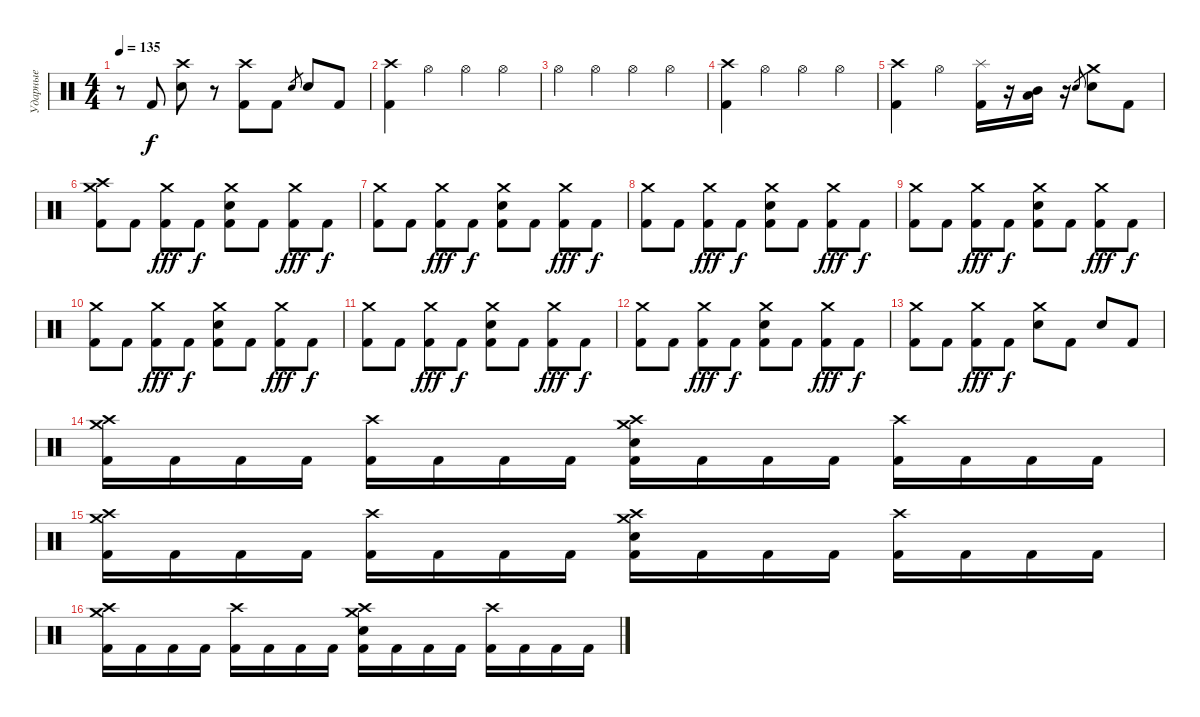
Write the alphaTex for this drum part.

\track ("Ударные" "Ударные") {instrument percussion}
\staff {score}
\articulation defaults
\ts (4 4)
\tempo 135
\clef neutral
\ks c
r.8{dy f} "Kick (hit) 2".8 ("Crash high (hit)" "Electric Snare (hit)").8 r.8 ("Crash high (hit)" "Kick (hit) 2").8 "Kick (hit) 2".8 "Electric Snare (hit)".8{gr} "Electric Snare (hit)".8 "Kick (hit) 2".8 |
("Crash high (hit)" "Kick (hit) 2").4 "Hi-Hat (open)".4 "Hi-Hat (open)".4 "Hi-Hat (open)".4 |
"Hi-Hat (open)".4 "Hi-Hat (open)".4 "Hi-Hat (open)".4 "Hi-Hat (open)".4 |
("Crash high (hit)" "Kick (hit) 2").4 "Hi-Hat (open)".4 "Hi-Hat (open)".4 "Hi-Hat (open)".4 |
("Crash high (hit)" "Kick (hit) 2").4 "Hi-Hat (open)".4 ("Splash (hit)" "Kick (hit) 2").16 r.16 ("Mid Tom (hit)" "Low Tom (hit)").16 r.16 "Electric Snare (hit)".8{gr} ("Crash medium (hit)" "Electric Snare (hit)").8 "Kick (hit) 2".8 |
("Crash medium (hit)" "Crash high (hit)" "Kick (hit) 2").8 "Kick (hit) 2".8 ("Crash medium (hit)" "Kick (hit) 2").8{dy fff} "Kick (hit) 2".8{dy f} ("Crash medium (hit)" "Electric Snare (hit)" "Kick (hit) 2").8 "Kick (hit) 2".8 ("Crash medium (hit)" "Kick (hit) 2").8{dy fff} "Kick (hit) 2".8{dy f} |
("Crash medium (hit)" "Kick (hit) 2").8 "Kick (hit) 2".8 ("Crash medium (hit)" "Kick (hit) 2").8{dy fff} "Kick (hit) 2".8{dy f} ("Crash medium (hit)" "Electric Snare (hit)" "Kick (hit) 2").8 "Kick (hit) 2".8 ("Crash medium (hit)" "Kick (hit) 2").8{dy fff} "Kick (hit) 2".8{dy f} |
("Crash medium (hit)" "Kick (hit) 2").8 "Kick (hit) 2".8 ("Crash medium (hit)" "Kick (hit) 2").8{dy fff} "Kick (hit) 2".8{dy f} ("Crash medium (hit)" "Electric Snare (hit)" "Kick (hit) 2").8 "Kick (hit) 2".8 ("Crash medium (hit)" "Kick (hit) 2").8{dy fff} "Kick (hit) 2".8{dy f} |
("Crash medium (hit)" "Kick (hit) 2").8 "Kick (hit) 2".8 ("Crash medium (hit)" "Kick (hit) 2").8{dy fff} "Kick (hit) 2".8{dy f} ("Crash medium (hit)" "Electric Snare (hit)" "Kick (hit) 2").8 "Kick (hit) 2".8 ("Crash medium (hit)" "Kick (hit) 2").8{dy fff} "Kick (hit) 2".8{dy f} |
("Crash medium (hit)" "Kick (hit) 2").8 "Kick (hit) 2".8 ("Crash medium (hit)" "Kick (hit) 2").8{dy fff} "Kick (hit) 2".8{dy f} ("Crash medium (hit)" "Electric Snare (hit)" "Kick (hit) 2").8 "Kick (hit) 2".8 ("Crash medium (hit)" "Kick (hit) 2").8{dy fff} "Kick (hit) 2".8{dy f} |
("Crash medium (hit)" "Kick (hit) 2").8 "Kick (hit) 2".8 ("Crash medium (hit)" "Kick (hit) 2").8{dy fff} "Kick (hit) 2".8{dy f} ("Crash medium (hit)" "Electric Snare (hit)" "Kick (hit) 2").8 "Kick (hit) 2".8 ("Crash medium (hit)" "Kick (hit) 2").8{dy fff} "Kick (hit) 2".8{dy f} |
("Crash medium (hit)" "Kick (hit) 2").8 "Kick (hit) 2".8 ("Crash medium (hit)" "Kick (hit) 2").8{dy fff} "Kick (hit) 2".8{dy f} ("Crash medium (hit)" "Electric Snare (hit)" "Kick (hit) 2").8 "Kick (hit) 2".8 ("Crash medium (hit)" "Kick (hit) 2").8{dy fff} "Kick (hit) 2".8{dy f} |
("Crash medium (hit)" "Kick (hit) 2").8 "Kick (hit) 2".8 ("Crash medium (hit)" "Kick (hit) 2").8{dy fff} "Kick (hit) 2".8{dy f} ("Crash medium (hit)" "Electric Snare (hit)").8 "Kick (hit) 2".8 "Electric Snare (hit)".8 "Kick (hit) 2".8 |
("Crash high (hit)" "Crash medium (hit)" "Kick (hit) 2").16 "Kick (hit) 2".16 "Kick (hit) 2".16 "Kick (hit) 2".16 ("Crash high (hit)" "Kick (hit) 2").16 "Kick (hit) 2".16 "Kick (hit) 2".16 "Kick (hit) 2".16 ("Crash medium (hit)" "Crash high (hit)" "Electric Snare (hit)" "Kick (hit) 2").16 "Kick (hit) 2".16 "Kick (hit) 2".16 "Kick (hit) 2".16 ("Crash high (hit)" "Kick (hit) 2").16 "Kick (hit) 2".16 "Kick (hit) 2".16 "Kick (hit) 2".16 |
("Crash high (hit)" "Crash medium (hit)" "Kick (hit) 2").16 "Kick (hit) 2".16 "Kick (hit) 2".16 "Kick (hit) 2".16 ("Crash high (hit)" "Kick (hit) 2").16 "Kick (hit) 2".16 "Kick (hit) 2".16 "Kick (hit) 2".16 ("Crash medium (hit)" "Crash high (hit)" "Electric Snare (hit)" "Kick (hit) 2").16 "Kick (hit) 2".16 "Kick (hit) 2".16 "Kick (hit) 2".16 ("Crash high (hit)" "Kick (hit) 2").16 "Kick (hit) 2".16 "Kick (hit) 2".16 "Kick (hit) 2".16 |
("Crash high (hit)" "Crash medium (hit)" "Kick (hit) 2").16 "Kick (hit) 2".16 "Kick (hit) 2".16 "Kick (hit) 2".16 ("Crash high (hit)" "Kick (hit) 2").16 "Kick (hit) 2".16 "Kick (hit) 2".16 "Kick (hit) 2".16 ("Crash medium (hit)" "Crash high (hit)" "Electric Snare (hit)" "Kick (hit) 2").16 "Kick (hit) 2".16 "Kick (hit) 2".16 "Kick (hit) 2".16 ("Crash high (hit)" "Kick (hit) 2").16 "Kick (hit) 2".16 "Kick (hit) 2".16 "Kick (hit) 2".16
